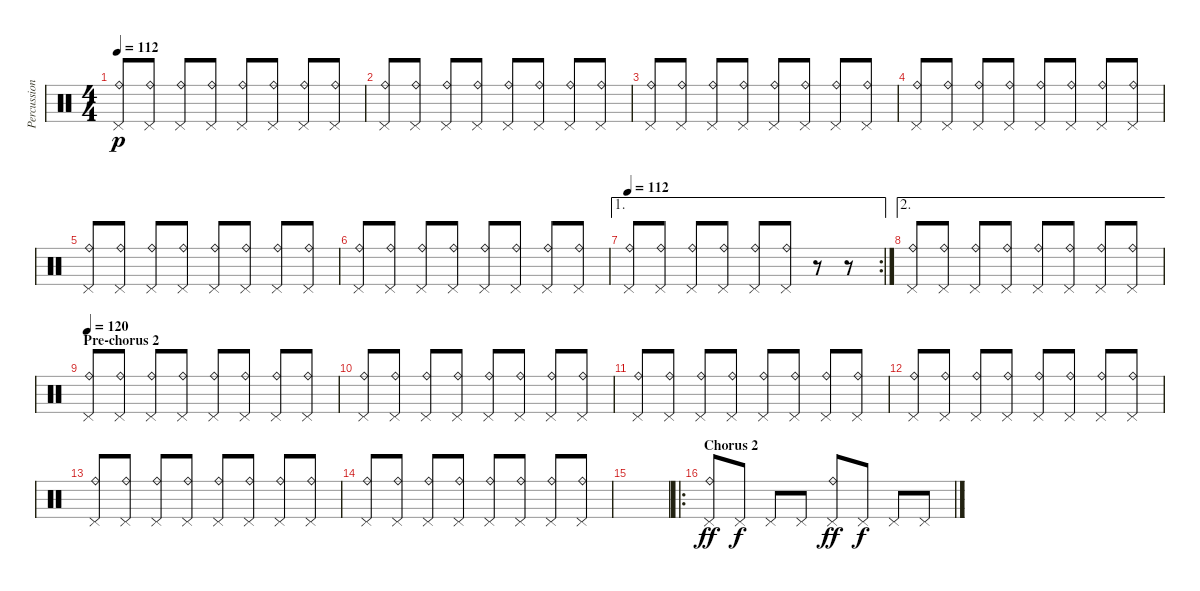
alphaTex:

\track ("Percussion 2" "Percussion") {instrument percussion}
\staff {score}
\articulation defaults
\ts (4 4)
\tempo 112
\clef neutral
\ks c
("Pedal Hi-Hat (hit)" "Ride (bell)").8{dy p} ("Pedal Hi-Hat (hit)" "Ride (bell)").8 ("Pedal Hi-Hat (hit)" "Ride (bell)").8 ("Pedal Hi-Hat (hit)" "Ride (bell)").8 ("Pedal Hi-Hat (hit)" "Ride (bell)").8 ("Pedal Hi-Hat (hit)" "Ride (bell)").8 ("Pedal Hi-Hat (hit)" "Ride (bell)").8 ("Pedal Hi-Hat (hit)" "Ride (bell)").8 |
("Pedal Hi-Hat (hit)" "Ride (bell)").8 ("Pedal Hi-Hat (hit)" "Ride (bell)").8 ("Pedal Hi-Hat (hit)" "Ride (bell)").8 ("Pedal Hi-Hat (hit)" "Ride (bell)").8 ("Pedal Hi-Hat (hit)" "Ride (bell)").8 ("Pedal Hi-Hat (hit)" "Ride (bell)").8 ("Pedal Hi-Hat (hit)" "Ride (bell)").8 ("Pedal Hi-Hat (hit)" "Ride (bell)").8 |
("Pedal Hi-Hat (hit)" "Ride (bell)").8 ("Pedal Hi-Hat (hit)" "Ride (bell)").8 ("Pedal Hi-Hat (hit)" "Ride (bell)").8 ("Pedal Hi-Hat (hit)" "Ride (bell)").8 ("Pedal Hi-Hat (hit)" "Ride (bell)").8 ("Pedal Hi-Hat (hit)" "Ride (bell)").8 ("Pedal Hi-Hat (hit)" "Ride (bell)").8 ("Pedal Hi-Hat (hit)" "Ride (bell)").8 |
("Pedal Hi-Hat (hit)" "Ride (bell)").8 ("Pedal Hi-Hat (hit)" "Ride (bell)").8 ("Pedal Hi-Hat (hit)" "Ride (bell)").8 ("Pedal Hi-Hat (hit)" "Ride (bell)").8 ("Pedal Hi-Hat (hit)" "Ride (bell)").8 ("Pedal Hi-Hat (hit)" "Ride (bell)").8 ("Pedal Hi-Hat (hit)" "Ride (bell)").8 ("Pedal Hi-Hat (hit)" "Ride (bell)").8 |
("Pedal Hi-Hat (hit)" "Ride (bell)").8 ("Pedal Hi-Hat (hit)" "Ride (bell)").8 ("Pedal Hi-Hat (hit)" "Ride (bell)").8 ("Pedal Hi-Hat (hit)" "Ride (bell)").8 ("Pedal Hi-Hat (hit)" "Ride (bell)").8 ("Pedal Hi-Hat (hit)" "Ride (bell)").8 ("Pedal Hi-Hat (hit)" "Ride (bell)").8 ("Pedal Hi-Hat (hit)" "Ride (bell)").8 |
("Pedal Hi-Hat (hit)" "Ride (bell)").8 ("Pedal Hi-Hat (hit)" "Ride (bell)").8 ("Pedal Hi-Hat (hit)" "Ride (bell)").8 ("Pedal Hi-Hat (hit)" "Ride (bell)").8 ("Pedal Hi-Hat (hit)" "Ride (bell)").8 ("Pedal Hi-Hat (hit)" "Ride (bell)").8 ("Pedal Hi-Hat (hit)" "Ride (bell)").8 ("Pedal Hi-Hat (hit)" "Ride (bell)").8 |
\ae 1
\rc 2
\tempo 112
("Pedal Hi-Hat (hit)" "Ride (bell)").8 ("Pedal Hi-Hat (hit)" "Ride (bell)").8 ("Pedal Hi-Hat (hit)" "Ride (bell)").8 ("Pedal Hi-Hat (hit)" "Ride (bell)").8 ("Pedal Hi-Hat (hit)" "Ride (bell)").8 ("Pedal Hi-Hat (hit)" "Ride (bell)").8 r.8 r.8 |
\ae 2
("Pedal Hi-Hat (hit)" "Ride (bell)").8 ("Pedal Hi-Hat (hit)" "Ride (bell)").8 ("Pedal Hi-Hat (hit)" "Ride (bell)").8 ("Pedal Hi-Hat (hit)" "Ride (bell)").8 ("Pedal Hi-Hat (hit)" "Ride (bell)").8 ("Pedal Hi-Hat (hit)" "Ride (bell)").8 ("Pedal Hi-Hat (hit)" "Ride (bell)").8 ("Pedal Hi-Hat (hit)" "Ride (bell)").8 |
\section ("" "Pre-chorus 2")
\tempo 120
("Pedal Hi-Hat (hit)" "Ride (bell)").8 ("Pedal Hi-Hat (hit)" "Ride (bell)").8 ("Pedal Hi-Hat (hit)" "Ride (bell)").8 ("Pedal Hi-Hat (hit)" "Ride (bell)").8 ("Pedal Hi-Hat (hit)" "Ride (bell)").8 ("Pedal Hi-Hat (hit)" "Ride (bell)").8 ("Pedal Hi-Hat (hit)" "Ride (bell)").8 ("Pedal Hi-Hat (hit)" "Ride (bell)").8 |
("Pedal Hi-Hat (hit)" "Ride (bell)").8 ("Pedal Hi-Hat (hit)" "Ride (bell)").8 ("Pedal Hi-Hat (hit)" "Ride (bell)").8 ("Pedal Hi-Hat (hit)" "Ride (bell)").8 ("Pedal Hi-Hat (hit)" "Ride (bell)").8 ("Pedal Hi-Hat (hit)" "Ride (bell)").8 ("Pedal Hi-Hat (hit)" "Ride (bell)").8 ("Pedal Hi-Hat (hit)" "Ride (bell)").8 |
("Pedal Hi-Hat (hit)" "Ride (bell)").8 ("Pedal Hi-Hat (hit)" "Ride (bell)").8 ("Pedal Hi-Hat (hit)" "Ride (bell)").8 ("Pedal Hi-Hat (hit)" "Ride (bell)").8 ("Pedal Hi-Hat (hit)" "Ride (bell)").8 ("Pedal Hi-Hat (hit)" "Ride (bell)").8 ("Pedal Hi-Hat (hit)" "Ride (bell)").8 ("Pedal Hi-Hat (hit)" "Ride (bell)").8 |
("Pedal Hi-Hat (hit)" "Ride (bell)").8 ("Pedal Hi-Hat (hit)" "Ride (bell)").8 ("Pedal Hi-Hat (hit)" "Ride (bell)").8 ("Pedal Hi-Hat (hit)" "Ride (bell)").8 ("Pedal Hi-Hat (hit)" "Ride (bell)").8 ("Pedal Hi-Hat (hit)" "Ride (bell)").8 ("Pedal Hi-Hat (hit)" "Ride (bell)").8 ("Pedal Hi-Hat (hit)" "Ride (bell)").8 |
("Pedal Hi-Hat (hit)" "Ride (bell)").8 ("Pedal Hi-Hat (hit)" "Ride (bell)").8 ("Pedal Hi-Hat (hit)" "Ride (bell)").8 ("Pedal Hi-Hat (hit)" "Ride (bell)").8 ("Pedal Hi-Hat (hit)" "Ride (bell)").8 ("Pedal Hi-Hat (hit)" "Ride (bell)").8 ("Pedal Hi-Hat (hit)" "Ride (bell)").8 ("Pedal Hi-Hat (hit)" "Ride (bell)").8 |
("Pedal Hi-Hat (hit)" "Ride (bell)").8 ("Pedal Hi-Hat (hit)" "Ride (bell)").8 ("Pedal Hi-Hat (hit)" "Ride (bell)").8 ("Pedal Hi-Hat (hit)" "Ride (bell)").8 ("Pedal Hi-Hat (hit)" "Ride (bell)").8 ("Pedal Hi-Hat (hit)" "Ride (bell)").8 ("Pedal Hi-Hat (hit)" "Ride (bell)").8 ("Pedal Hi-Hat (hit)" "Ride (bell)").8 |
|
\ro
\section ("" "Chorus 2")
("Pedal Hi-Hat (hit)" "Ride (bell)").8{dy ff} "Pedal Hi-Hat (hit)".8{dy f} "Pedal Hi-Hat (hit)".8 "Pedal Hi-Hat (hit)".8 ("Pedal Hi-Hat (hit)" "Ride (bell)").8{dy ff} "Pedal Hi-Hat (hit)".8{dy f} "Pedal Hi-Hat (hit)".8 "Pedal Hi-Hat (hit)".8
